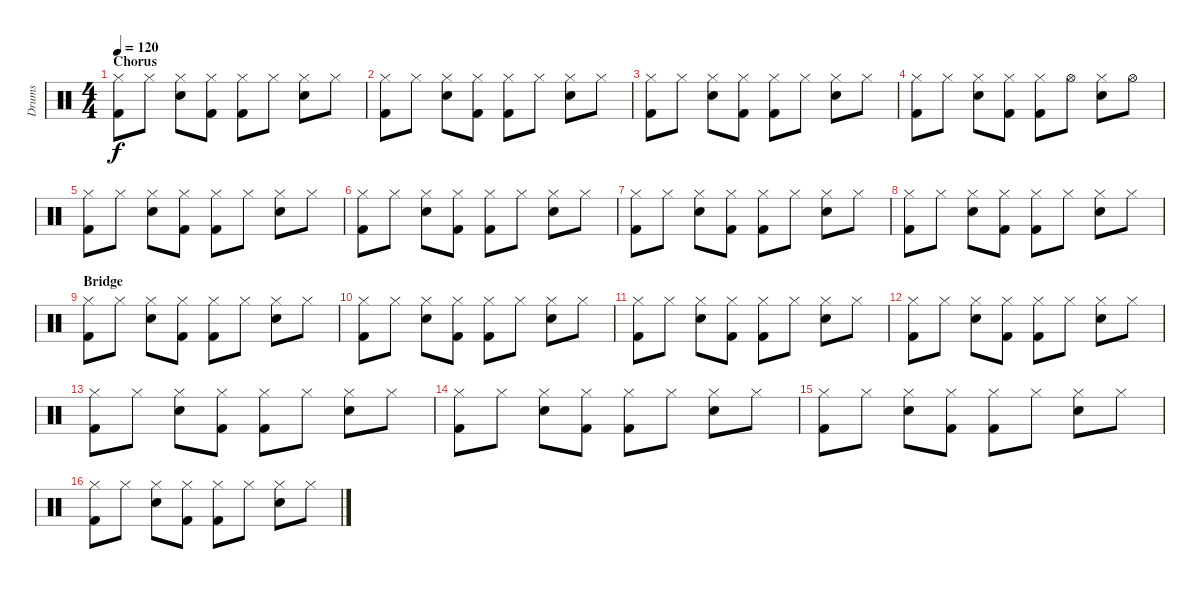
\track ("Drums" "Drums") {instrument percussion}
\staff {score}
\articulation defaults
\ts (4 4)
\section ("" "Chorus")
\tempo 120
\clef neutral
\ks c
("Hi-Hat (closed)" "Kick (hit) 2").8{dy f} "Hi-Hat (closed)".8 ("Hi-Hat (closed)" "Snare (hit) 2").8 ("Hi-Hat (closed)" "Kick (hit) 2").8 ("Hi-Hat (closed)" "Kick (hit) 2").8 "Hi-Hat (closed)".8 ("Hi-Hat (closed)" "Snare (hit) 2").8 "Hi-Hat (closed)".8 |
("Hi-Hat (closed)" "Kick (hit) 2").8 "Hi-Hat (closed)".8 ("Hi-Hat (closed)" "Snare (hit) 2").8 ("Hi-Hat (closed)" "Kick (hit) 2").8 ("Hi-Hat (closed)" "Kick (hit) 2").8 "Hi-Hat (closed)".8 ("Hi-Hat (closed)" "Snare (hit) 2").8 "Hi-Hat (closed)".8 |
("Hi-Hat (closed)" "Kick (hit) 2").8 "Hi-Hat (closed)".8 ("Hi-Hat (closed)" "Snare (hit) 2").8 ("Hi-Hat (closed)" "Kick (hit) 2").8 ("Hi-Hat (closed)" "Kick (hit) 2").8 "Hi-Hat (closed)".8 ("Hi-Hat (closed)" "Snare (hit) 2").8 "Hi-Hat (closed)".8 |
("Hi-Hat (closed)" "Kick (hit) 2").8 "Hi-Hat (closed)".8 ("Hi-Hat (closed)" "Snare (hit) 2").8 ("Hi-Hat (closed)" "Kick (hit) 2").8 ("Hi-Hat (closed)" "Kick (hit) 2").8 "Hi-Hat (open)".8 ("Hi-Hat (closed)" "Snare (hit) 2").8 "Hi-Hat (open)".8 |
("Hi-Hat (closed)" "Kick (hit) 2").8 "Hi-Hat (closed)".8 ("Hi-Hat (closed)" "Snare (hit) 2").8 ("Hi-Hat (closed)" "Kick (hit) 2").8 ("Hi-Hat (closed)" "Kick (hit) 2").8 "Hi-Hat (closed)".8 ("Hi-Hat (closed)" "Snare (hit) 2").8 "Hi-Hat (closed)".8 |
("Hi-Hat (closed)" "Kick (hit) 2").8 "Hi-Hat (closed)".8 ("Hi-Hat (closed)" "Snare (hit) 2").8 ("Hi-Hat (closed)" "Kick (hit) 2").8 ("Hi-Hat (closed)" "Kick (hit) 2").8 "Hi-Hat (closed)".8 ("Hi-Hat (closed)" "Snare (hit) 2").8 "Hi-Hat (closed)".8 |
("Hi-Hat (closed)" "Kick (hit) 2").8 "Hi-Hat (closed)".8 ("Hi-Hat (closed)" "Snare (hit) 2").8 ("Hi-Hat (closed)" "Kick (hit) 2").8 ("Hi-Hat (closed)" "Kick (hit) 2").8 "Hi-Hat (closed)".8 ("Hi-Hat (closed)" "Snare (hit) 2").8 "Hi-Hat (closed)".8 |
("Hi-Hat (closed)" "Kick (hit) 2").8 "Hi-Hat (closed)".8 ("Hi-Hat (closed)" "Snare (hit) 2").8 ("Hi-Hat (closed)" "Kick (hit) 2").8 ("Hi-Hat (closed)" "Kick (hit) 2").8 "Hi-Hat (closed)".8 ("Hi-Hat (closed)" "Snare (hit) 2").8 "Hi-Hat (closed)".8 |
\section ("" "Bridge")
("Hi-Hat (closed)" "Kick (hit) 2").8 "Hi-Hat (closed)".8 ("Hi-Hat (closed)" "Snare (hit) 2").8 ("Hi-Hat (closed)" "Kick (hit) 2").8 ("Hi-Hat (closed)" "Kick (hit) 2").8 "Hi-Hat (closed)".8 ("Hi-Hat (closed)" "Snare (hit) 2").8 "Hi-Hat (closed)".8 |
("Hi-Hat (closed)" "Kick (hit) 2").8 "Hi-Hat (closed)".8 ("Hi-Hat (closed)" "Snare (hit) 2").8 ("Hi-Hat (closed)" "Kick (hit) 2").8 ("Hi-Hat (closed)" "Kick (hit) 2").8 "Hi-Hat (closed)".8 ("Hi-Hat (closed)" "Snare (hit) 2").8 "Hi-Hat (closed)".8 |
("Hi-Hat (closed)" "Kick (hit) 2").8 "Hi-Hat (closed)".8 ("Hi-Hat (closed)" "Snare (hit) 2").8 ("Hi-Hat (closed)" "Kick (hit) 2").8 ("Hi-Hat (closed)" "Kick (hit) 2").8 "Hi-Hat (closed)".8 ("Hi-Hat (closed)" "Snare (hit) 2").8 "Hi-Hat (closed)".8 |
("Hi-Hat (closed)" "Kick (hit) 2").8 "Hi-Hat (closed)".8 ("Hi-Hat (closed)" "Snare (hit) 2").8 ("Hi-Hat (closed)" "Kick (hit) 2").8 ("Hi-Hat (closed)" "Kick (hit) 2").8 "Hi-Hat (closed)".8 ("Hi-Hat (closed)" "Snare (hit) 2").8 "Hi-Hat (closed)".8 |
("Hi-Hat (closed)" "Kick (hit) 2").8 "Hi-Hat (closed)".8 ("Hi-Hat (closed)" "Snare (hit) 2").8 ("Hi-Hat (closed)" "Kick (hit) 2").8 ("Hi-Hat (closed)" "Kick (hit) 2").8 "Hi-Hat (closed)".8 ("Hi-Hat (closed)" "Snare (hit) 2").8 "Hi-Hat (closed)".8 |
("Hi-Hat (closed)" "Kick (hit) 2").8 "Hi-Hat (closed)".8 ("Hi-Hat (closed)" "Snare (hit) 2").8 ("Hi-Hat (closed)" "Kick (hit) 2").8 ("Hi-Hat (closed)" "Kick (hit) 2").8 "Hi-Hat (closed)".8 ("Hi-Hat (closed)" "Snare (hit) 2").8 "Hi-Hat (closed)".8 |
("Hi-Hat (closed)" "Kick (hit) 2").8 "Hi-Hat (closed)".8 ("Hi-Hat (closed)" "Snare (hit) 2").8 ("Hi-Hat (closed)" "Kick (hit) 2").8 ("Hi-Hat (closed)" "Kick (hit) 2").8 "Hi-Hat (closed)".8 ("Hi-Hat (closed)" "Snare (hit) 2").8 "Hi-Hat (closed)".8 |
("Hi-Hat (closed)" "Kick (hit) 2").8 "Hi-Hat (closed)".8 ("Hi-Hat (closed)" "Snare (hit) 2").8 ("Hi-Hat (closed)" "Kick (hit) 2").8 ("Hi-Hat (closed)" "Kick (hit) 2").8 "Hi-Hat (closed)".8 ("Hi-Hat (closed)" "Snare (hit) 2").8 "Hi-Hat (closed)".8
